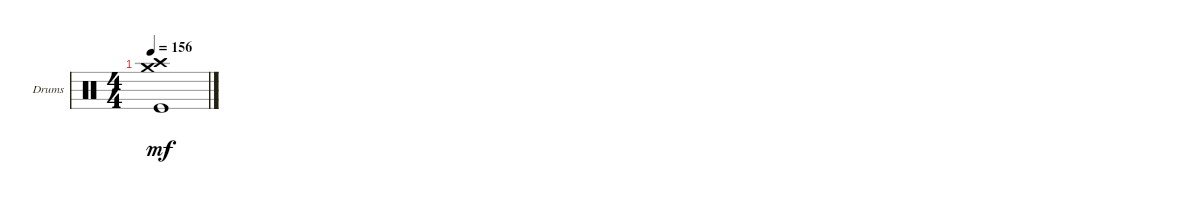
\defaultSystemsLayout 4
\bracketExtendMode groupsimilarinstruments
\firstSystemTrackNameOrientation horizontal
\otherSystemsTrackNameOrientation horizontal
\track ("Drumkit" "Drums") {instrument percussion}
\staff {score}
\articulation defaults
\ts (4 4)
\tempo 156
\clef neutral
\ks c
("Kick (hit)" "Crash medium (hit)" "Crash high (hit)").1{dy mf}
